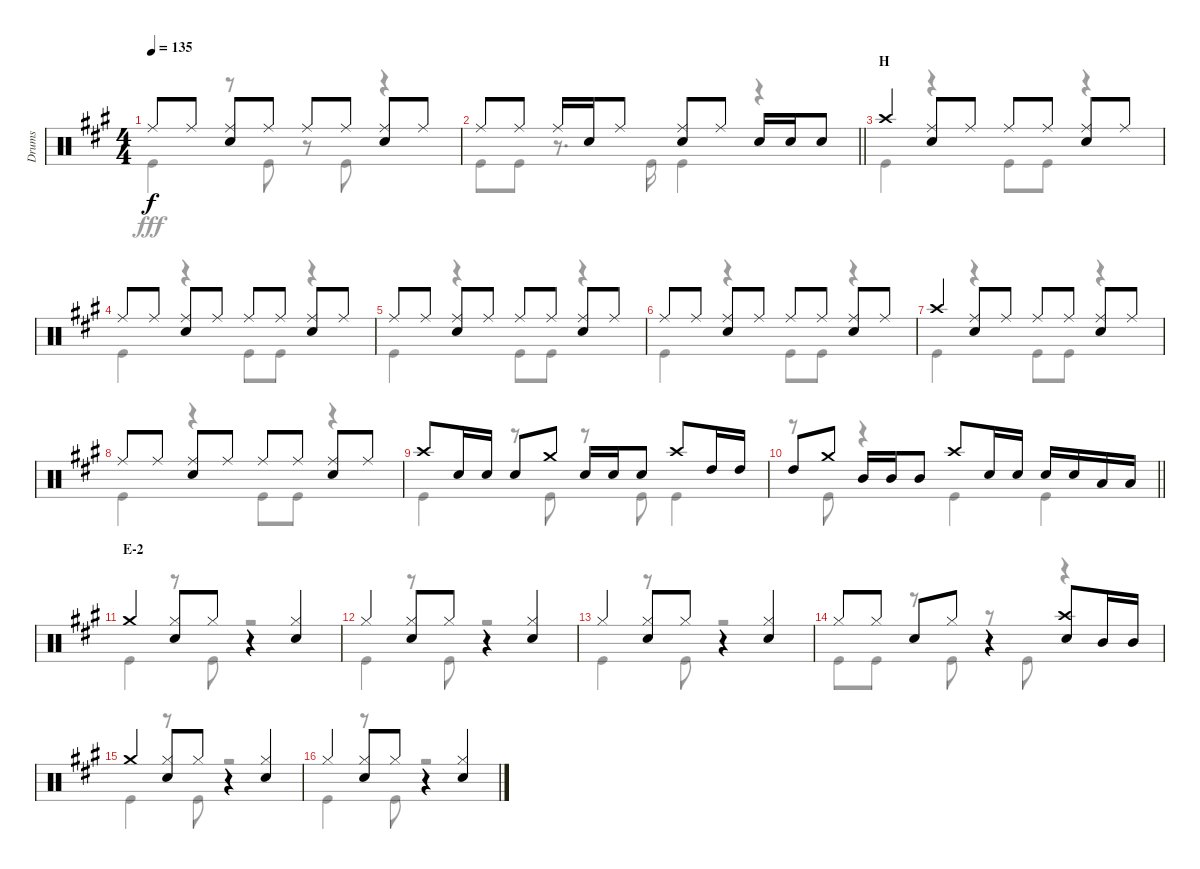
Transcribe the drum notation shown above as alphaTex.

\track ("Drums" "Drums") {instrument percussion}
\staff {score}
\articulation defaults
\voice
\ts (4 4)
\tempo 135
\clef neutral
\ks a "Ride (middle)".8{dy f} "Ride (middle)".8
("Ride (middle)" "Snare (hit) 2").8 "Ride (middle)".8 "Ride (middle)".8 "Ride (middle)".8 ("Ride (middle)" "Snare (hit) 2").8 "Ride (middle)".8 |
\barLineRight lightlight "Ride (middle)".8 "Ride (middle)".8 "Ride (middle)".16 "Snare (hit) 2".16 "Ride (middle)".8
("Ride (middle)" "Snare (hit) 2").8 "Ride (middle)".8 "Snare (hit) 2".16 "Snare (hit) 2".16 "Snare (hit) 2".8 |
\section ("" "H")
"Crash high (hit)".4 ("Ride (middle)" "Snare (hit) 2").8 "Ride (middle)".8 "Ride (middle)".8 "Ride (middle)".8 ("Ride (middle)" "Snare (hit) 2").8 "Ride (middle)".8 |
"Ride (middle)".8 "Ride (middle)".8 ("Ride (middle)" "Snare (hit) 2").8 "Ride (middle)".8 "Ride (middle)".8 "Ride (middle)".8 ("Ride (middle)" "Snare (hit) 2").8 "Ride (middle)".8 |
"Ride (middle)".8 "Ride (middle)".8 ("Ride (middle)" "Snare (hit) 2").8 "Ride (middle)".8 "Ride (middle)".8 "Ride (middle)".8 ("Ride (middle)" "Snare (hit) 2").8 "Ride (middle)".8 |
"Ride (middle)".8 "Ride (middle)".8 ("Ride (middle)" "Snare (hit) 2").8 "Ride (middle)".8 "Ride (middle)".8 "Ride (middle)".8 ("Ride (middle)" "Snare (hit) 2").8 "Ride (middle)".8 |
"Crash high (hit)".4 ("Ride (middle)" "Snare (hit) 2").8 "Ride (middle)".8 "Ride (middle)".8 "Ride (middle)".8 ("Ride (middle)" "Snare (hit) 2").8 "Ride (middle)".8 |
"Ride (middle)".8 "Ride (middle)".8 ("Ride (middle)" "Snare (hit) 2").8 "Ride (middle)".8 "Ride (middle)".8 "Ride (middle)".8 ("Ride (middle)" "Snare (hit) 2").8 "Ride (middle)".8 |
"Crash high (hit)".8 "Snare (hit) 2".16 "Snare (hit) 2".16 "Snare (hit) 2".8 "Crash medium (hit)".8 "Snare (hit) 2".16 "Snare (hit) 2".16 "Snare (hit) 2".8 "Crash high (hit)".8 "High Tom (hit)".16 "High Tom (hit)".16 |
\barLineRight lightlight "High Tom (hit)".8 "Crash medium (hit)".8 "Mid Tom (hit)".16 "Mid Tom (hit)".16 "Mid Tom (hit)".8 "Crash high (hit)".8 "Snare (hit) 2".16 "Snare (hit) 2".16 "Snare (hit) 2".16 "Snare (hit) 2".16 "Low Tom (hit)".16 "Low Tom (hit)".16
|
\section ("" "E-2")
"Crash medium (hit)".4 ("Hi-Hat (closed)" "Snare (hit) 2").8 "Hi-Hat (closed)".8 r.4 ("Hi-Hat (closed)" "Snare (hit) 2").4 |
"Hi-Hat (closed)".4 ("Hi-Hat (closed)" "Snare (hit) 2").8 "Hi-Hat (closed)".8 r.4 ("Hi-Hat (closed)" "Snare (hit) 2").4 |
"Hi-Hat (closed)".4 ("Hi-Hat (closed)" "Snare (hit) 2").8 "Hi-Hat (closed)".8 r.4 ("Hi-Hat (closed)" "Snare (hit) 2").4 |
"Hi-Hat (closed)".8 "Hi-Hat (closed)".8 "Snare (hit) 2".8 "Hi-Hat (closed)".8 r.4 ("Crash high (hit)" "Snare (hit) 2").8 "Mid Tom (hit)".16 "Mid Tom (hit)".16 |
"Crash medium (hit)".4 ("Hi-Hat (closed)" "Snare (hit) 2").8 "Hi-Hat (closed)".8 r.4 ("Hi-Hat (closed)" "Snare (hit) 2").4 |
"Hi-Hat (closed)".4 ("Hi-Hat (closed)" "Snare (hit) 2").8 "Hi-Hat (closed)".8 r.4 ("Hi-Hat (closed)" "Snare (hit) 2").4
\voice
\clef neutral
\ottava regular
\simile none
\ks a "Kick (hit)".4{dy fff}
r.8 "Kick (hit)".8 r.8 "Kick (hit)".8 r.4 |
\barLineRight lightlight "Kick (hit)".8 "Kick (hit)".8
r.8{d} "Kick (hit)".16 "Kick (hit)".4 r.4 |
"Kick (hit)".4 r.4 "Kick (hit)".8 "Kick (hit)".8 r.4 |
"Kick (hit)".4 r.4 "Kick (hit)".8 "Kick (hit)".8 r.4 |
"Kick (hit)".4 r.4 "Kick (hit)".8 "Kick (hit)".8 r.4 |
"Kick (hit)".4 r.4 "Kick (hit)".8 "Kick (hit)".8 r.4 |
"Kick (hit)".4 r.4 "Kick (hit)".8 "Kick (hit)".8 r.4 |
"Kick (hit)".4 r.4 "Kick (hit)".8 "Kick (hit)".8 r.4 |
"Kick (hit)".4 r.8 "Kick (hit)".8 r.8 "Kick (hit)".8 "Kick (hit)".4 |
\barLineRight lightlight
r.8 "Kick (hit)".8 r.4 "Kick (hit)".4 "Kick (hit)".4 |
"Kick (hit)".4 r.8 "Kick (hit)".8 r.2 |
"Kick (hit)".4 r.8 "Kick (hit)".8 r.2 |
"Kick (hit)".4 r.8 "Kick (hit)".8 r.2 |
"Kick (hit)".8 "Kick (hit)".8 r.8 "Kick (hit)".8 r.8 "Kick (hit)".8 r.4 |
"Kick (hit)".4 r.8 "Kick (hit)".8 r.2 |
"Kick (hit)".4 r.8 "Kick (hit)".8 r.2
